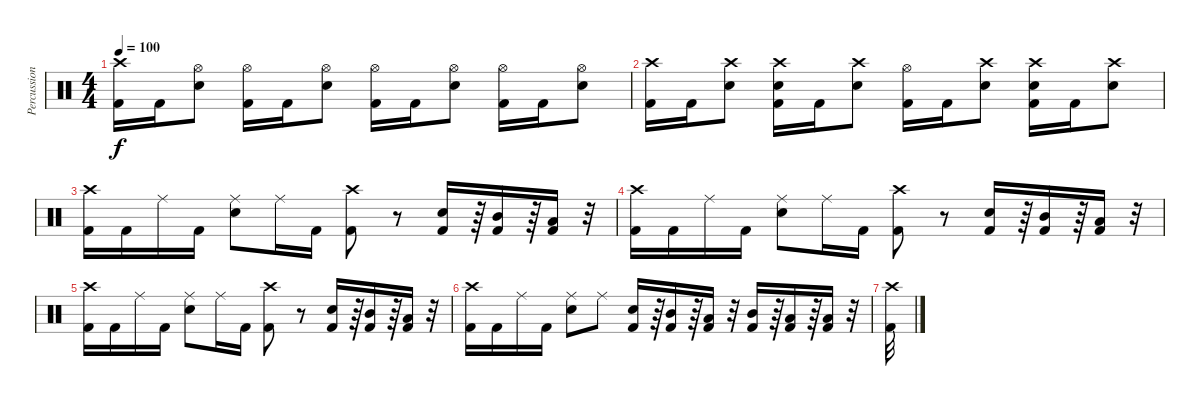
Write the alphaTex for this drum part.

\track ("Percussion" "Percussion") {instrument percussion}
\staff {score}
\articulation defaults
\ts (4 4)
\tempo 100
\clef neutral
\ks c
("Crash high (hit)" "Kick (hit) 2").16{dy f} "Kick (hit) 2".16 ("Hi-Hat (open)" "Snare (hit) 2").8 ("Hi-Hat (open)" "Kick (hit) 2").16 "Kick (hit) 2".16 ("Hi-Hat (open)" "Snare (hit) 2").8 ("Hi-Hat (open)" "Kick (hit) 2").16 "Kick (hit) 2".16 ("Hi-Hat (open)" "Snare (hit) 2").8 ("Hi-Hat (open)" "Kick (hit) 2").16 "Kick (hit) 2".16 ("Hi-Hat (open)" "Snare (hit) 2").8 |
("Crash high (hit)" "Kick (hit) 2").16 "Kick (hit) 2".16 ("Crash high (hit)" "Snare (hit) 2").8 ("Crash high (hit)" "Snare (hit) 2" "Kick (hit) 2").16 "Kick (hit) 2".16 ("Crash high (hit)" "Snare (hit) 2").8 ("Hi-Hat (open)" "Kick (hit) 2").16 "Kick (hit) 2".16 ("Crash high (hit)" "Snare (hit) 2").8 ("Crash high (hit)" "Snare (hit) 2" "Kick (hit) 2").16 "Kick (hit) 2".16 ("Crash high (hit)" "Snare (hit) 2").8 |
("Crash high (hit)" "Kick (hit) 2").16 "Kick (hit) 2".16 "Ride (middle)".16 "Kick (hit) 2".16 ("Ride (middle)" "Snare (hit) 2").8 "Ride (middle)".16 "Kick (hit) 2".16 ("Crash high (hit)" "Kick (hit) 2").8 r.8 ("Snare (hit) 2" "Kick (hit) 2").16 r.64 ("Mid Tom (hit)" "Kick (hit) 2").16 r.64 ("Low Floor Tom (hit)" "Kick (hit) 2").16 r.32 |
("Crash high (hit)" "Kick (hit) 2").16 "Kick (hit) 2".16 "Ride (middle)".16 "Kick (hit) 2".16 ("Ride (middle)" "Snare (hit) 2").8 "Ride (middle)".16 "Kick (hit) 2".16 ("Crash high (hit)" "Kick (hit) 2").8 r.8 ("Snare (hit) 2" "Kick (hit) 2").16 r.64 ("Mid Tom (hit)" "Kick (hit) 2").16 r.64 ("Low Floor Tom (hit)" "Kick (hit) 2").16 r.32 |
("Crash high (hit)" "Kick (hit) 2").16 "Kick (hit) 2".16 "Ride (middle)".16 "Kick (hit) 2".16 ("Ride (middle)" "Snare (hit) 2").8 "Ride (middle)".16 "Kick (hit) 2".16 ("Crash high (hit)" "Kick (hit) 2").8 r.8 ("Snare (hit) 2" "Kick (hit) 2").16 r.64 ("Mid Tom (hit)" "Kick (hit) 2").16 r.64 ("Low Floor Tom (hit)" "Kick (hit) 2").16 r.32 |
("Crash high (hit)" "Kick (hit) 2").16 "Kick (hit) 2".16 "Ride (middle)".16 "Kick (hit) 2".16 ("Ride (middle)" "Snare (hit) 2").8 "Ride (middle)".8 ("Snare (hit) 2" "Kick (hit) 2").16 r.64 ("Mid Tom (hit)" "Kick (hit) 2").16 r.64 ("Low Floor Tom (hit)" "Kick (hit) 2").16 r.32 ("Mid Tom (hit)" "Kick (hit) 2").16 r.64 ("Low Floor Tom (hit)" "Kick (hit) 2").16 r.64 ("Low Floor Tom (hit)" "Kick (hit) 2").16 r.32 |
("Crash high (hit)" "Kick (hit) 2").32
